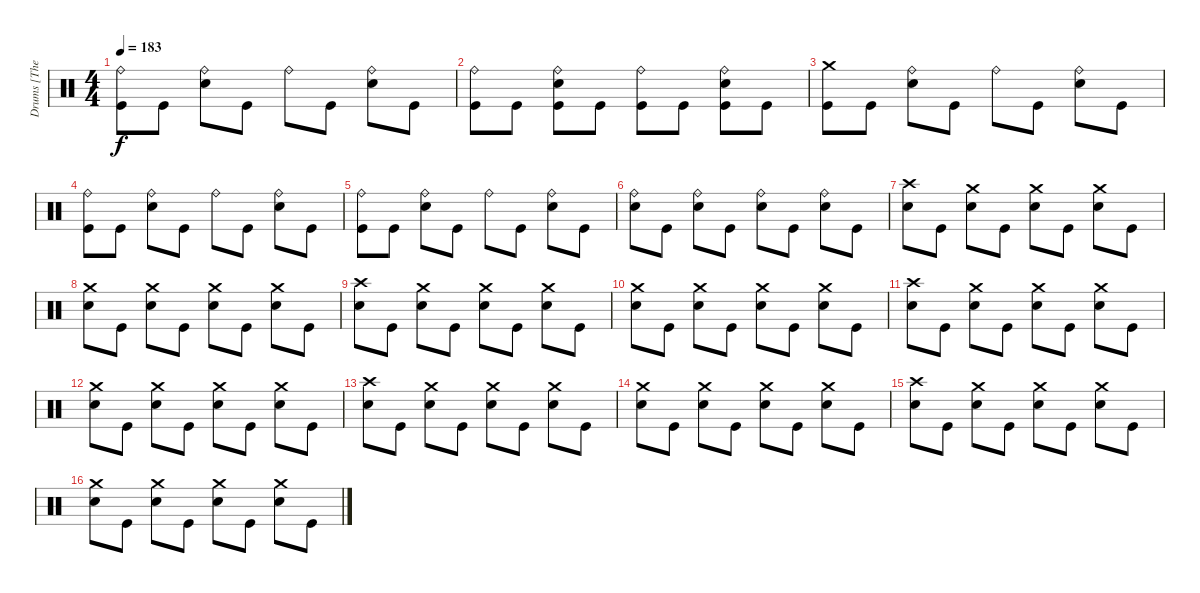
\track ("Drums [The Rev]" "Drums [The") {instrument percussion}
\staff {score}
\articulation defaults
\ts (4 4)
\tempo 183
\clef neutral
\ks c
("Ride (bell)" "Kick (hit)").8{dy f} "Kick (hit)".8 ("Ride (bell)" "Snare (hit) 2").8 "Kick (hit)".8 "Ride (bell)".8 "Kick (hit)".8 ("Ride (bell)" "Snare (hit) 2").8 "Kick (hit)".8 |
("Ride (bell)" "Kick (hit)").8 "Kick (hit)".8 ("Ride (bell)" "Snare (hit) 2" "Kick (hit)").8 "Kick (hit)".8 ("Ride (bell)" "Kick (hit)").8 "Kick (hit)".8 ("Ride (bell)" "Snare (hit) 2" "Kick (hit)").8 "Kick (hit)".8 |
("Crash medium (hit)" "Kick (hit)").8 "Kick (hit)".8 ("Ride (bell)" "Snare (hit) 2").8 "Kick (hit)".8 "Ride (bell)".8 "Kick (hit)".8 ("Ride (bell)" "Snare (hit) 2").8 "Kick (hit)".8 |
("Ride (bell)" "Kick (hit)").8 "Kick (hit)".8 ("Ride (bell)" "Snare (hit) 2").8 "Kick (hit)".8 "Ride (bell)".8 "Kick (hit)".8 ("Ride (bell)" "Snare (hit) 2").8 "Kick (hit)".8 |
("Ride (bell)" "Kick (hit)").8 "Kick (hit)".8 ("Ride (bell)" "Snare (hit) 2").8 "Kick (hit)".8 "Ride (bell)".8 "Kick (hit)".8 ("Ride (bell)" "Snare (hit) 2").8 "Kick (hit)".8 |
("Ride (bell)" "Snare (hit) 2").8 "Kick (hit)".8 ("Ride (bell)" "Snare (hit) 2").8 "Kick (hit)".8 ("Ride (bell)" "Snare (hit) 2").8 "Kick (hit)".8 ("Ride (bell)" "Snare (hit) 2").8 "Kick (hit)".8 |
("Crash high (hit)" "Snare (hit) 2").8 "Kick (hit)".8 ("Crash medium (hit)" "Snare (hit) 2").8 "Kick (hit)".8 ("Crash medium (hit)" "Snare (hit) 2").8 "Kick (hit)".8 ("Crash medium (hit)" "Snare (hit) 2").8 "Kick (hit)".8 |
("Crash medium (hit)" "Snare (hit) 2").8 "Kick (hit)".8 ("Crash medium (hit)" "Snare (hit) 2").8 "Kick (hit)".8 ("Crash medium (hit)" "Snare (hit) 2").8 "Kick (hit)".8 ("Crash medium (hit)" "Snare (hit) 2").8 "Kick (hit)".8 |
("Crash high (hit)" "Snare (hit) 2").8 "Kick (hit)".8 ("Crash medium (hit)" "Snare (hit) 2").8 "Kick (hit)".8 ("Crash medium (hit)" "Snare (hit) 2").8 "Kick (hit)".8 ("Crash medium (hit)" "Snare (hit) 2").8 "Kick (hit)".8 |
("Crash medium (hit)" "Snare (hit) 2").8 "Kick (hit)".8 ("Crash medium (hit)" "Snare (hit) 2").8 "Kick (hit)".8 ("Crash medium (hit)" "Snare (hit) 2").8 "Kick (hit)".8 ("Crash medium (hit)" "Snare (hit) 2").8 "Kick (hit)".8 |
("Crash high (hit)" "Snare (hit) 2").8 "Kick (hit)".8 ("Crash medium (hit)" "Snare (hit) 2").8 "Kick (hit)".8 ("Crash medium (hit)" "Snare (hit) 2").8 "Kick (hit)".8 ("Crash medium (hit)" "Snare (hit) 2").8 "Kick (hit)".8 |
("Crash medium (hit)" "Snare (hit) 2").8 "Kick (hit)".8 ("Crash medium (hit)" "Snare (hit) 2").8 "Kick (hit)".8 ("Crash medium (hit)" "Snare (hit) 2").8 "Kick (hit)".8 ("Crash medium (hit)" "Snare (hit) 2").8 "Kick (hit)".8 |
("Crash high (hit)" "Snare (hit) 2").8 "Kick (hit)".8 ("Crash medium (hit)" "Snare (hit) 2").8 "Kick (hit)".8 ("Crash medium (hit)" "Snare (hit) 2").8 "Kick (hit)".8 ("Crash medium (hit)" "Snare (hit) 2").8 "Kick (hit)".8 |
("Crash medium (hit)" "Snare (hit) 2").8 "Kick (hit)".8 ("Crash medium (hit)" "Snare (hit) 2").8 "Kick (hit)".8 ("Crash medium (hit)" "Snare (hit) 2").8 "Kick (hit)".8 ("Crash medium (hit)" "Snare (hit) 2").8 "Kick (hit)".8 |
("Crash high (hit)" "Snare (hit) 2").8 "Kick (hit)".8 ("Crash medium (hit)" "Snare (hit) 2").8 "Kick (hit)".8 ("Crash medium (hit)" "Snare (hit) 2").8 "Kick (hit)".8 ("Crash medium (hit)" "Snare (hit) 2").8 "Kick (hit)".8 |
("Crash medium (hit)" "Snare (hit) 2").8 "Kick (hit)".8 ("Crash medium (hit)" "Snare (hit) 2").8 "Kick (hit)".8 ("Crash medium (hit)" "Snare (hit) 2").8 "Kick (hit)".8 ("Crash medium (hit)" "Snare (hit) 2").8 "Kick (hit)".8
